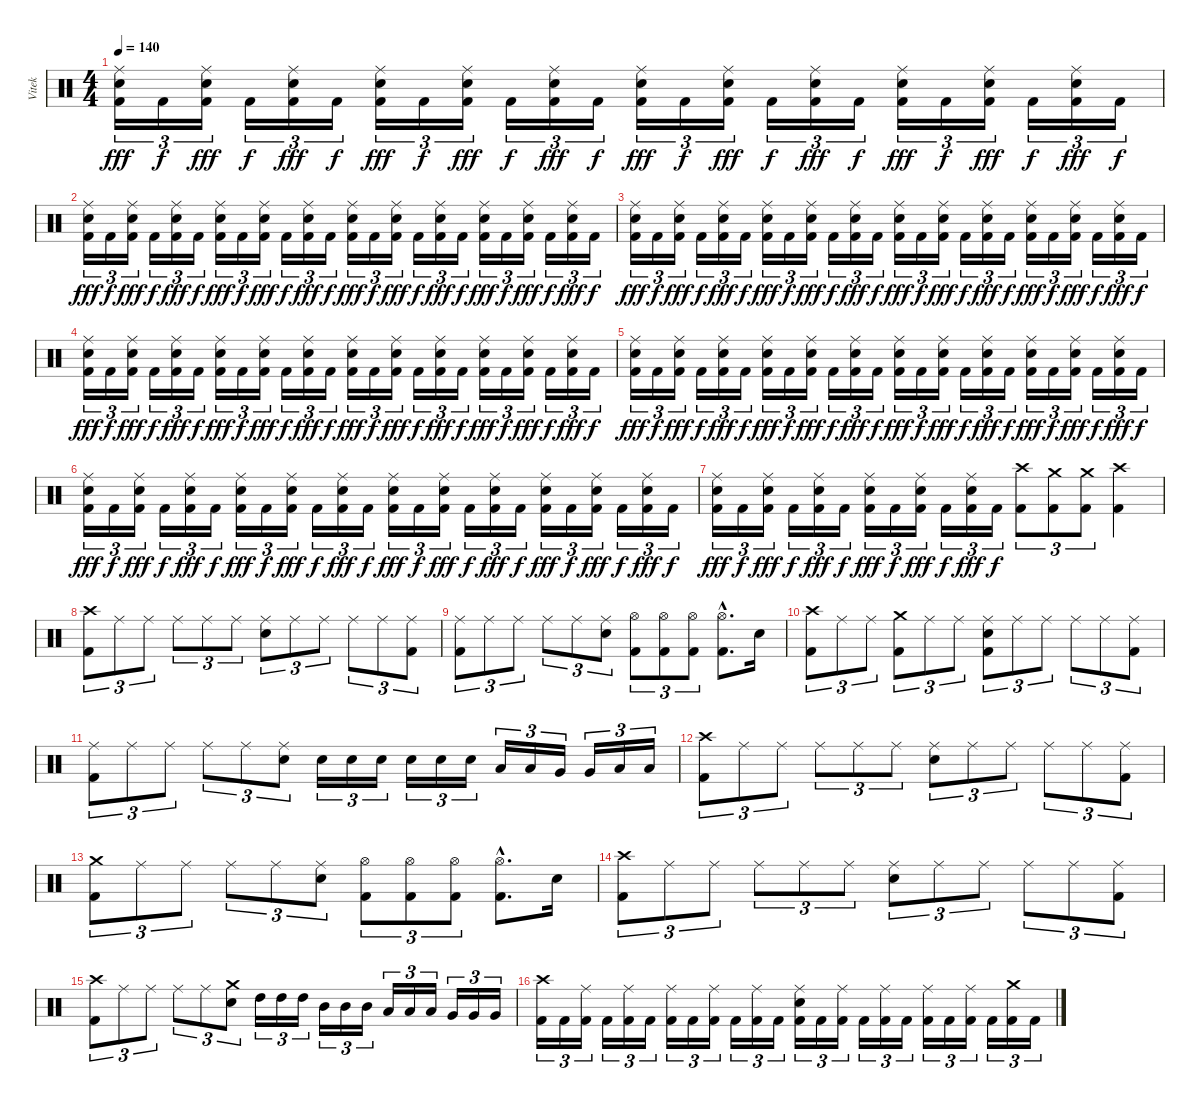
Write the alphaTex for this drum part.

\track ("Vitek" "Vitek") {instrument percussion}
\staff {score}
\articulation defaults
\ts (4 4)
\tempo 140
\clef neutral
\ks c
("Ride (middle)" "Electric Snare (hit)" "Kick (hit) 2").16{tu (3 2) dy fff} "Kick (hit) 2".16{tu (3 2) dy f} ("Ride (middle)" "Electric Snare (hit)" "Kick (hit) 2").16{tu (3 2) dy fff} "Kick (hit) 2".16{tu (3 2) dy f} ("Ride (middle)" "Electric Snare (hit)" "Kick (hit) 2").16{tu (3 2) dy fff} "Kick (hit) 2".16{tu (3 2) dy f} ("Ride (middle)" "Electric Snare (hit)" "Kick (hit) 2").16{tu (3 2) dy fff} "Kick (hit) 2".16{tu (3 2) dy f} ("Ride (middle)" "Electric Snare (hit)" "Kick (hit) 2").16{tu (3 2) dy fff} "Kick (hit) 2".16{tu (3 2) dy f} ("Ride (middle)" "Electric Snare (hit)" "Kick (hit) 2").16{tu (3 2) dy fff} "Kick (hit) 2".16{tu (3 2) dy f} ("Ride (middle)" "Electric Snare (hit)" "Kick (hit) 2").16{tu (3 2) dy fff} "Kick (hit) 2".16{tu (3 2) dy f} ("Ride (middle)" "Electric Snare (hit)" "Kick (hit) 2").16{tu (3 2) dy fff} "Kick (hit) 2".16{tu (3 2) dy f} ("Ride (middle)" "Electric Snare (hit)" "Kick (hit) 2").16{tu (3 2) dy fff} "Kick (hit) 2".16{tu (3 2) dy f} ("Ride (middle)" "Electric Snare (hit)" "Kick (hit) 2").16{tu (3 2) dy fff} "Kick (hit) 2".16{tu (3 2) dy f} ("Ride (middle)" "Electric Snare (hit)" "Kick (hit) 2").16{tu (3 2) dy fff} "Kick (hit) 2".16{tu (3 2) dy f} ("Ride (middle)" "Electric Snare (hit)" "Kick (hit) 2").16{tu (3 2) dy fff} "Kick (hit) 2".16{tu (3 2) dy f} |
("Ride (middle)" "Electric Snare (hit)" "Kick (hit) 2").16{tu (3 2) dy fff} "Kick (hit) 2".16{tu (3 2) dy f} ("Ride (middle)" "Electric Snare (hit)" "Kick (hit) 2").16{tu (3 2) dy fff} "Kick (hit) 2".16{tu (3 2) dy f} ("Ride (middle)" "Electric Snare (hit)" "Kick (hit) 2").16{tu (3 2) dy fff} "Kick (hit) 2".16{tu (3 2) dy f} ("Ride (middle)" "Electric Snare (hit)" "Kick (hit) 2").16{tu (3 2) dy fff} "Kick (hit) 2".16{tu (3 2) dy f} ("Ride (middle)" "Electric Snare (hit)" "Kick (hit) 2").16{tu (3 2) dy fff} "Kick (hit) 2".16{tu (3 2) dy f} ("Ride (middle)" "Electric Snare (hit)" "Kick (hit) 2").16{tu (3 2) dy fff} "Kick (hit) 2".16{tu (3 2) dy f} ("Ride (middle)" "Electric Snare (hit)" "Kick (hit) 2").16{tu (3 2) dy fff} "Kick (hit) 2".16{tu (3 2) dy f} ("Ride (middle)" "Electric Snare (hit)" "Kick (hit) 2").16{tu (3 2) dy fff} "Kick (hit) 2".16{tu (3 2) dy f} ("Ride (middle)" "Electric Snare (hit)" "Kick (hit) 2").16{tu (3 2) dy fff} "Kick (hit) 2".16{tu (3 2) dy f} ("Ride (middle)" "Electric Snare (hit)" "Kick (hit) 2").16{tu (3 2) dy fff} "Kick (hit) 2".16{tu (3 2) dy f} ("Ride (middle)" "Electric Snare (hit)" "Kick (hit) 2").16{tu (3 2) dy fff} "Kick (hit) 2".16{tu (3 2) dy f} ("Ride (middle)" "Electric Snare (hit)" "Kick (hit) 2").16{tu (3 2) dy fff} "Kick (hit) 2".16{tu (3 2) dy f} |
("Ride (middle)" "Electric Snare (hit)" "Kick (hit) 2").16{tu (3 2) dy fff} "Kick (hit) 2".16{tu (3 2) dy f} ("Ride (middle)" "Electric Snare (hit)" "Kick (hit) 2").16{tu (3 2) dy fff} "Kick (hit) 2".16{tu (3 2) dy f} ("Ride (middle)" "Electric Snare (hit)" "Kick (hit) 2").16{tu (3 2) dy fff} "Kick (hit) 2".16{tu (3 2) dy f} ("Ride (middle)" "Electric Snare (hit)" "Kick (hit) 2").16{tu (3 2) dy fff} "Kick (hit) 2".16{tu (3 2) dy f} ("Ride (middle)" "Electric Snare (hit)" "Kick (hit) 2").16{tu (3 2) dy fff} "Kick (hit) 2".16{tu (3 2) dy f} ("Ride (middle)" "Electric Snare (hit)" "Kick (hit) 2").16{tu (3 2) dy fff} "Kick (hit) 2".16{tu (3 2) dy f} ("Ride (middle)" "Electric Snare (hit)" "Kick (hit) 2").16{tu (3 2) dy fff} "Kick (hit) 2".16{tu (3 2) dy f} ("Ride (middle)" "Electric Snare (hit)" "Kick (hit) 2").16{tu (3 2) dy fff} "Kick (hit) 2".16{tu (3 2) dy f} ("Ride (middle)" "Electric Snare (hit)" "Kick (hit) 2").16{tu (3 2) dy fff} "Kick (hit) 2".16{tu (3 2) dy f} ("Ride (middle)" "Electric Snare (hit)" "Kick (hit) 2").16{tu (3 2) dy fff} "Kick (hit) 2".16{tu (3 2) dy f} ("Ride (middle)" "Electric Snare (hit)" "Kick (hit) 2").16{tu (3 2) dy fff} "Kick (hit) 2".16{tu (3 2) dy f} ("Ride (middle)" "Electric Snare (hit)" "Kick (hit) 2").16{tu (3 2) dy fff} "Kick (hit) 2".16{tu (3 2) dy f} |
("Ride (middle)" "Electric Snare (hit)" "Kick (hit) 2").16{tu (3 2) dy fff} "Kick (hit) 2".16{tu (3 2) dy f} ("Ride (middle)" "Electric Snare (hit)" "Kick (hit) 2").16{tu (3 2) dy fff} "Kick (hit) 2".16{tu (3 2) dy f} ("Ride (middle)" "Electric Snare (hit)" "Kick (hit) 2").16{tu (3 2) dy fff} "Kick (hit) 2".16{tu (3 2) dy f} ("Ride (middle)" "Electric Snare (hit)" "Kick (hit) 2").16{tu (3 2) dy fff} "Kick (hit) 2".16{tu (3 2) dy f} ("Ride (middle)" "Electric Snare (hit)" "Kick (hit) 2").16{tu (3 2) dy fff} "Kick (hit) 2".16{tu (3 2) dy f} ("Ride (middle)" "Electric Snare (hit)" "Kick (hit) 2").16{tu (3 2) dy fff} "Kick (hit) 2".16{tu (3 2) dy f} ("Ride (middle)" "Electric Snare (hit)" "Kick (hit) 2").16{tu (3 2) dy fff} "Kick (hit) 2".16{tu (3 2) dy f} ("Ride (middle)" "Electric Snare (hit)" "Kick (hit) 2").16{tu (3 2) dy fff} "Kick (hit) 2".16{tu (3 2) dy f} ("Ride (middle)" "Electric Snare (hit)" "Kick (hit) 2").16{tu (3 2) dy fff} "Kick (hit) 2".16{tu (3 2) dy f} ("Ride (middle)" "Electric Snare (hit)" "Kick (hit) 2").16{tu (3 2) dy fff} "Kick (hit) 2".16{tu (3 2) dy f} ("Ride (middle)" "Electric Snare (hit)" "Kick (hit) 2").16{tu (3 2) dy fff} "Kick (hit) 2".16{tu (3 2) dy f} ("Ride (middle)" "Electric Snare (hit)" "Kick (hit) 2").16{tu (3 2) dy fff} "Kick (hit) 2".16{tu (3 2) dy f} |
("Ride (middle)" "Electric Snare (hit)" "Kick (hit) 2").16{tu (3 2) dy fff} "Kick (hit) 2".16{tu (3 2) dy f} ("Ride (middle)" "Electric Snare (hit)" "Kick (hit) 2").16{tu (3 2) dy fff} "Kick (hit) 2".16{tu (3 2) dy f} ("Ride (middle)" "Electric Snare (hit)" "Kick (hit) 2").16{tu (3 2) dy fff} "Kick (hit) 2".16{tu (3 2) dy f} ("Ride (middle)" "Electric Snare (hit)" "Kick (hit) 2").16{tu (3 2) dy fff} "Kick (hit) 2".16{tu (3 2) dy f} ("Ride (middle)" "Electric Snare (hit)" "Kick (hit) 2").16{tu (3 2) dy fff} "Kick (hit) 2".16{tu (3 2) dy f} ("Ride (middle)" "Electric Snare (hit)" "Kick (hit) 2").16{tu (3 2) dy fff} "Kick (hit) 2".16{tu (3 2) dy f} ("Ride (middle)" "Electric Snare (hit)" "Kick (hit) 2").16{tu (3 2) dy fff} "Kick (hit) 2".16{tu (3 2) dy f} ("Ride (middle)" "Electric Snare (hit)" "Kick (hit) 2").16{tu (3 2) dy fff} "Kick (hit) 2".16{tu (3 2) dy f} ("Ride (middle)" "Electric Snare (hit)" "Kick (hit) 2").16{tu (3 2) dy fff} "Kick (hit) 2".16{tu (3 2) dy f} ("Ride (middle)" "Electric Snare (hit)" "Kick (hit) 2").16{tu (3 2) dy fff} "Kick (hit) 2".16{tu (3 2) dy f} ("Ride (middle)" "Electric Snare (hit)" "Kick (hit) 2").16{tu (3 2) dy fff} "Kick (hit) 2".16{tu (3 2) dy f} ("Ride (middle)" "Electric Snare (hit)" "Kick (hit) 2").16{tu (3 2) dy fff} "Kick (hit) 2".16{tu (3 2) dy f} |
("Ride (middle)" "Electric Snare (hit)" "Kick (hit) 2").16{tu (3 2) dy fff} "Kick (hit) 2".16{tu (3 2) dy f} ("Ride (middle)" "Electric Snare (hit)" "Kick (hit) 2").16{tu (3 2) dy fff} "Kick (hit) 2".16{tu (3 2) dy f} ("Ride (middle)" "Electric Snare (hit)" "Kick (hit) 2").16{tu (3 2) dy fff} "Kick (hit) 2".16{tu (3 2) dy f} ("Ride (middle)" "Electric Snare (hit)" "Kick (hit) 2").16{tu (3 2) dy fff} "Kick (hit) 2".16{tu (3 2) dy f} ("Ride (middle)" "Electric Snare (hit)" "Kick (hit) 2").16{tu (3 2) dy fff} "Kick (hit) 2".16{tu (3 2) dy f} ("Ride (middle)" "Electric Snare (hit)" "Kick (hit) 2").16{tu (3 2) dy fff} "Kick (hit) 2".16{tu (3 2) dy f} ("Ride (middle)" "Electric Snare (hit)" "Kick (hit) 2").16{tu (3 2) dy fff} "Kick (hit) 2".16{tu (3 2) dy f} ("Ride (middle)" "Electric Snare (hit)" "Kick (hit) 2").16{tu (3 2) dy fff} "Kick (hit) 2".16{tu (3 2) dy f} ("Ride (middle)" "Electric Snare (hit)" "Kick (hit) 2").16{tu (3 2) dy fff} "Kick (hit) 2".16{tu (3 2) dy f} ("Ride (middle)" "Electric Snare (hit)" "Kick (hit) 2").16{tu (3 2) dy fff} "Kick (hit) 2".16{tu (3 2) dy f} ("Ride (middle)" "Electric Snare (hit)" "Kick (hit) 2").16{tu (3 2) dy fff} "Kick (hit) 2".16{tu (3 2) dy f} ("Ride (middle)" "Electric Snare (hit)" "Kick (hit) 2").16{tu (3 2) dy fff} "Kick (hit) 2".16{tu (3 2) dy f} |
("Ride (middle)" "Electric Snare (hit)" "Kick (hit) 2").16{tu (3 2) dy fff} "Kick (hit) 2".16{tu (3 2) dy f} ("Ride (middle)" "Electric Snare (hit)" "Kick (hit) 2").16{tu (3 2) dy fff} "Kick (hit) 2".16{tu (3 2) dy f} ("Ride (middle)" "Electric Snare (hit)" "Kick (hit) 2").16{tu (3 2) dy fff} "Kick (hit) 2".16{tu (3 2) dy f} ("Ride (middle)" "Electric Snare (hit)" "Kick (hit) 2").16{tu (3 2) dy fff} "Kick (hit) 2".16{tu (3 2) dy f} ("Ride (middle)" "Electric Snare (hit)" "Kick (hit) 2").16{tu (3 2) dy fff} "Kick (hit) 2".16{tu (3 2) dy f} ("Ride (middle)" "Electric Snare (hit)" "Kick (hit) 2").16{tu (3 2) dy fff} "Kick (hit) 2".16{tu (3 2) dy f} ("Crash high (hit)" "Kick (hit) 2").8{tu (3 2)} ("Crash medium (hit)" "Kick (hit) 2").8{tu (3 2)} ("Crash medium (hit)" "Kick (hit) 2").8{tu (3 2)} ("Crash high (hit)" "Kick (hit) 2").4 |
("Crash high (hit)" "Kick (hit) 2").8{tu (3 2)} "Ride (middle)".8{tu (3 2)} "Ride (middle)".8{tu (3 2)} "Ride (middle)".8{tu (3 2)} "Ride (middle)".8{tu (3 2)} "Ride (middle)".8{tu (3 2)} ("Ride (middle)" "Electric Snare (hit)").8{tu (3 2)} "Ride (middle)".8{tu (3 2)} "Ride (middle)".8{tu (3 2)} "Ride (middle)".8{tu (3 2)} "Ride (middle)".8{tu (3 2)} ("Ride (middle)" "Kick (hit) 2").8{tu (3 2)} |
("Ride (middle)" "Kick (hit) 2").8{tu (3 2)} "Ride (middle)".8{tu (3 2)} "Ride (middle)".8{tu (3 2)} "Ride (middle)".8{tu (3 2)} "Ride (middle)".8{tu (3 2)} ("Ride (middle)" "Electric Snare (hit)").8{tu (3 2)} ("Hi-Hat (open)" "Kick (hit) 2").8{tu (3 2)} ("Hi-Hat (open)" "Kick (hit) 2").8{tu (3 2)} ("Hi-Hat (open)" "Kick (hit) 2").8{tu (3 2)} ("Hi-Hat (open)"{hac} "Kick (hit) 2"{hac}).8{d} "Electric Snare (hit)".16 |
("Crash high (hit)" "Kick (hit) 2").8{tu (3 2)} "Ride (middle)".8{tu (3 2)} "Ride (middle)".8{tu (3 2)} ("Crash medium (hit)" "Kick (hit) 2").8{tu (3 2)} "Ride (middle)".8{tu (3 2)} "Ride (middle)".8{tu (3 2)} ("Ride (middle)" "Electric Snare (hit)" "Kick (hit) 2").8{tu (3 2)} "Ride (middle)".8{tu (3 2)} "Ride (middle)".8{tu (3 2)} "Ride (middle)".8{tu (3 2)} "Ride (middle)".8{tu (3 2)} ("Ride (middle)" "Kick (hit) 2").8{tu (3 2)} |
("Ride (middle)" "Kick (hit) 2").8{tu (3 2)} "Ride (middle)".8{tu (3 2)} "Ride (middle)".8{tu (3 2)} "Ride (middle)".8{tu (3 2)} "Ride (middle)".8{tu (3 2)} ("Ride (middle)" "Electric Snare (hit)").8{tu (3 2)} "Electric Snare (hit)".16{tu (3 2)} "Electric Snare (hit)".16{tu (3 2)} "Electric Snare (hit)".16{tu (3 2)} "Electric Snare (hit)".16{tu (3 2)} "Electric Snare (hit)".16{tu (3 2)} "Electric Snare (hit)".16{tu (3 2)} "Low Tom (hit)".16{tu (3 2)} "Low Tom (hit)".16{tu (3 2)} "Very Low Tom (hit)".16{tu (3 2)} "Very Low Tom (hit)".16{tu (3 2)} "Low Floor Tom (hit)".16{tu (3 2)} "Low Floor Tom (hit)".16{tu (3 2)} |
("Crash high (hit)" "Kick (hit) 2").8{tu (3 2)} "Ride (middle)".8{tu (3 2)} "Ride (middle)".8{tu (3 2)} "Ride (middle)".8{tu (3 2)} "Ride (middle)".8{tu (3 2)} "Ride (middle)".8{tu (3 2)} ("Ride (middle)" "Electric Snare (hit)").8{tu (3 2)} "Ride (middle)".8{tu (3 2)} "Ride (middle)".8{tu (3 2)} "Ride (middle)".8{tu (3 2)} "Ride (middle)".8{tu (3 2)} ("Ride (middle)" "Kick (hit) 2").8{tu (3 2)} |
("Crash medium (hit)" "Kick (hit) 2").8{tu (3 2)} "Ride (middle)".8{tu (3 2)} "Ride (middle)".8{tu (3 2)} "Ride (middle)".8{tu (3 2)} "Ride (middle)".8{tu (3 2)} ("Ride (middle)" "Electric Snare (hit)").8{tu (3 2)} ("Hi-Hat (open)" "Kick (hit) 2").8{tu (3 2)} ("Hi-Hat (open)" "Kick (hit) 2").8{tu (3 2)} ("Hi-Hat (open)" "Kick (hit) 2").8{tu (3 2)} ("Hi-Hat (open)"{hac} "Kick (hit) 2"{hac}).8{d} "Electric Snare (hit)".16 |
("Crash high (hit)" "Kick (hit) 2").8{tu (3 2)} "Ride (middle)".8{tu (3 2)} "Ride (middle)".8{tu (3 2)} "Ride (middle)".8{tu (3 2)} "Ride (middle)".8{tu (3 2)} "Ride (middle)".8{tu (3 2)} ("Ride (middle)" "Electric Snare (hit)").8{tu (3 2)} "Ride (middle)".8{tu (3 2)} "Ride (middle)".8{tu (3 2)} "Ride (middle)".8{tu (3 2)} "Ride (middle)".8{tu (3 2)} ("Ride (middle)" "Kick (hit) 2").8{tu (3 2)} |
("Crash high (hit)" "Kick (hit) 2").8{tu (3 2)} "Ride (middle)".8{tu (3 2)} "Ride (middle)".8{tu (3 2)} "Ride (middle)".8{tu (3 2)} "Ride (middle)".8{tu (3 2)} ("Crash medium (hit)" "Electric Snare (hit)").8{tu (3 2)} "High Tom (hit)".16{tu (3 2)} "High Tom (hit)".16{tu (3 2)} "High Tom (hit)".16{tu (3 2)} "Mid Tom (hit)".16{tu (3 2)} "Mid Tom (hit)".16{tu (3 2)} "Mid Tom (hit)".16{tu (3 2)} "Low Tom (hit)".16{tu (3 2)} "Low Tom (hit)".16{tu (3 2)} "Low Tom (hit)".16{tu (3 2)} "Very Low Tom (hit)".16{tu (3 2)} "Very Low Tom (hit)".16{tu (3 2)} "Very Low Tom (hit)".16{tu (3 2)} |
("Crash high (hit)" "Kick (hit) 2").16{tu (3 2)} "Kick (hit) 2".16{tu (3 2)} ("Ride (middle)" "Kick (hit) 2").16{tu (3 2)} "Kick (hit) 2".16{tu (3 2)} ("Ride (middle)" "Kick (hit) 2").16{tu (3 2)} "Kick (hit) 2".16{tu (3 2)} ("Ride (middle)" "Kick (hit) 2").16{tu (3 2)} "Kick (hit) 2".16{tu (3 2)} ("Ride (middle)" "Kick (hit) 2").16{tu (3 2)} "Kick (hit) 2".16{tu (3 2)} ("Ride (middle)" "Kick (hit) 2").16{tu (3 2)} "Kick (hit) 2".16{tu (3 2)} ("Ride (middle)" "Electric Snare (hit)" "Kick (hit) 2").16{tu (3 2)} "Kick (hit) 2".16{tu (3 2)} ("Ride (middle)" "Kick (hit) 2").16{tu (3 2)} "Kick (hit) 2".16{tu (3 2)} ("Ride (middle)" "Kick (hit) 2").16{tu (3 2)} "Kick (hit) 2".16{tu (3 2)} ("Ride (middle)" "Kick (hit) 2").16{tu (3 2)} "Kick (hit) 2".16{tu (3 2)} ("Ride (middle)" "Kick (hit) 2").16{tu (3 2)} "Kick (hit) 2".16{tu (3 2)} ("Crash medium (hit)" "Kick (hit) 2").16{tu (3 2)} "Kick (hit) 2".16{tu (3 2)}
